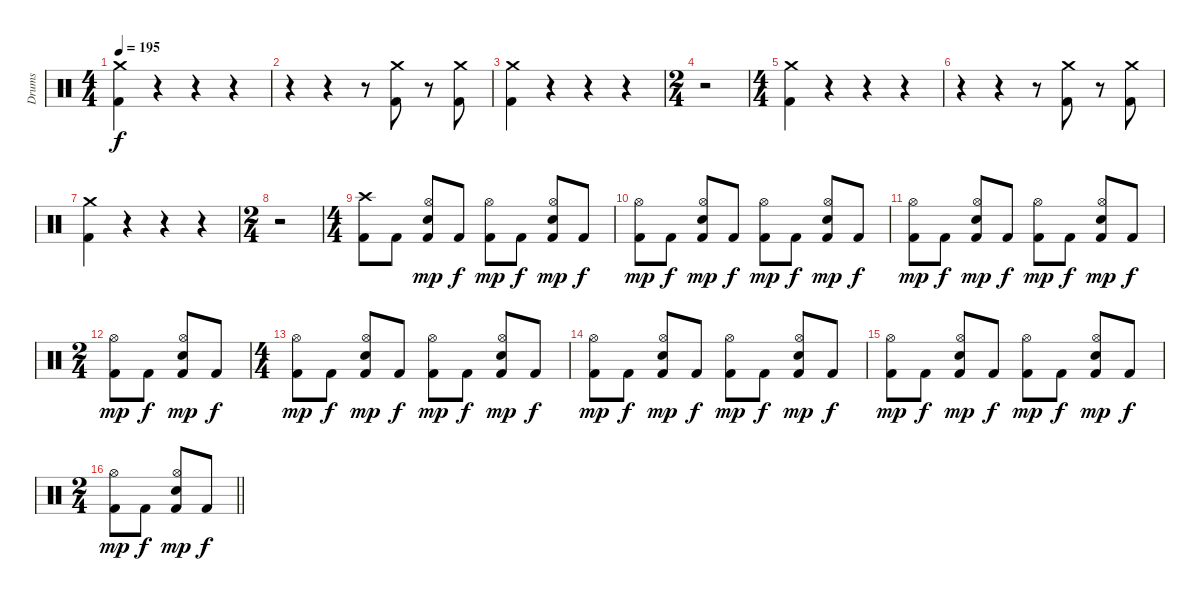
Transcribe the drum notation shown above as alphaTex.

\track ("Drums" "Drums") {instrument percussion}
\staff {score}
\articulation defaults
\ts (4 4)
\tempo 195
\clef neutral
\ks c
("Crash medium (hit)" "Kick (hit) 2").4{dy f} r.4 r.4 r.4 |
r.4 r.4 r.8 ("Crash medium (hit)" "Kick (hit) 2").8 r.8 ("Crash medium (hit)" "Kick (hit) 2").8 |
("Crash medium (hit)" "Kick (hit) 2").4 r.4 r.4 r.4 |
\ts (2 4)
r.2 |
\ts (4 4)
("Crash medium (hit)" "Kick (hit) 2").4 r.4 r.4 r.4 |
r.4 r.4 r.8 ("Crash medium (hit)" "Kick (hit) 2").8 r.8 ("Crash medium (hit)" "Kick (hit) 2").8 |
("Crash medium (hit)" "Kick (hit) 2").4 r.4 r.4 r.4 |
\ts (2 4)
r.2 |
\ts (4 4)
("Crash high (hit)" "Kick (hit) 2").8 "Kick (hit) 2".8 ("Hi-Hat (open)" "Snare (hit) 2" "Kick (hit) 2").8{dy mp} "Kick (hit) 2".8{dy f} ("Hi-Hat (open)" "Kick (hit) 2").8{dy mp} "Kick (hit) 2".8{dy f} ("Hi-Hat (open)" "Snare (hit) 2" "Kick (hit) 2").8{dy mp} "Kick (hit) 2".8{dy f} |
("Hi-Hat (open)" "Kick (hit) 2").8{dy mp} "Kick (hit) 2".8{dy f} ("Hi-Hat (open)" "Snare (hit) 2" "Kick (hit) 2").8{dy mp} "Kick (hit) 2".8{dy f} ("Hi-Hat (open)" "Kick (hit) 2").8{dy mp} "Kick (hit) 2".8{dy f} ("Hi-Hat (open)" "Snare (hit) 2" "Kick (hit) 2").8{dy mp} "Kick (hit) 2".8{dy f} |
("Hi-Hat (open)" "Kick (hit) 2").8{dy mp} "Kick (hit) 2".8{dy f} ("Hi-Hat (open)" "Snare (hit) 2" "Kick (hit) 2").8{dy mp} "Kick (hit) 2".8{dy f} ("Hi-Hat (open)" "Kick (hit) 2").8{dy mp} "Kick (hit) 2".8{dy f} ("Hi-Hat (open)" "Snare (hit) 2" "Kick (hit) 2").8{dy mp} "Kick (hit) 2".8{dy f} |
\ts (2 4)
("Hi-Hat (open)" "Kick (hit) 2").8{dy mp} "Kick (hit) 2".8{dy f} ("Hi-Hat (open)" "Snare (hit) 2" "Kick (hit) 2").8{dy mp} "Kick (hit) 2".8{dy f} |
\ts (4 4)
("Hi-Hat (open)" "Kick (hit) 2").8{dy mp} "Kick (hit) 2".8{dy f} ("Hi-Hat (open)" "Snare (hit) 2" "Kick (hit) 2").8{dy mp} "Kick (hit) 2".8{dy f} ("Hi-Hat (open)" "Kick (hit) 2").8{dy mp} "Kick (hit) 2".8{dy f} ("Hi-Hat (open)" "Snare (hit) 2" "Kick (hit) 2").8{dy mp} "Kick (hit) 2".8{dy f} |
("Hi-Hat (open)" "Kick (hit) 2").8{dy mp} "Kick (hit) 2".8{dy f} ("Hi-Hat (open)" "Snare (hit) 2" "Kick (hit) 2").8{dy mp} "Kick (hit) 2".8{dy f} ("Hi-Hat (open)" "Kick (hit) 2").8{dy mp} "Kick (hit) 2".8{dy f} ("Hi-Hat (open)" "Snare (hit) 2" "Kick (hit) 2").8{dy mp} "Kick (hit) 2".8{dy f} |
("Hi-Hat (open)" "Kick (hit) 2").8{dy mp} "Kick (hit) 2".8{dy f} ("Hi-Hat (open)" "Snare (hit) 2" "Kick (hit) 2").8{dy mp} "Kick (hit) 2".8{dy f} ("Hi-Hat (open)" "Kick (hit) 2").8{dy mp} "Kick (hit) 2".8{dy f} ("Hi-Hat (open)" "Snare (hit) 2" "Kick (hit) 2").8{dy mp} "Kick (hit) 2".8{dy f} |
\ts (2 4)
\barLineRight lightlight
("Hi-Hat (open)" "Kick (hit) 2").8{dy mp} "Kick (hit) 2".8{dy f} ("Hi-Hat (open)" "Snare (hit) 2" "Kick (hit) 2").8{dy mp} "Kick (hit) 2".8{dy f}
